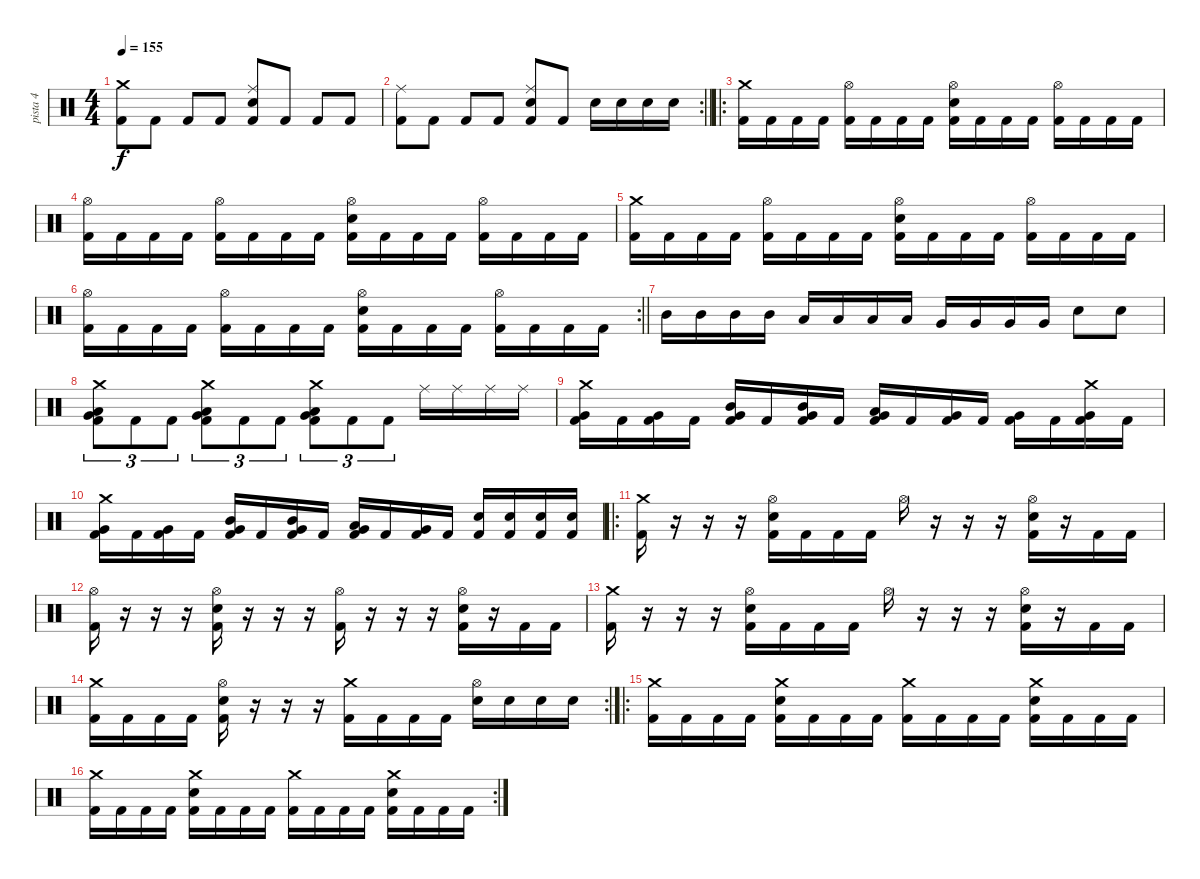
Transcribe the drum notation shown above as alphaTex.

\track ("pista 4" "pista 4") {instrument percussion}
\staff {score}
\articulation defaults
\ts (4 4)
\tempo 155
\clef neutral
\ks c
("Crash medium (hit)" "Kick (hit) 2").8{dy f} "Kick (hit) 2".8 "Kick (hit) 2".8 "Kick (hit) 2".8 ("Ride (middle)" "Snare (hit) 2" "Kick (hit) 2").8 "Kick (hit) 2".8 "Kick (hit) 2".8 "Kick (hit) 2".8 |
\rc 2
\barLineRight lightlight
("Ride (middle)" "Kick (hit) 2").8 "Kick (hit) 2".8 "Kick (hit) 2".8 "Kick (hit) 2".8 ("Ride (middle)" "Snare (hit) 2" "Kick (hit) 2").8 "Kick (hit) 2".8 "Snare (hit) 2".16 "Snare (hit) 2".16 "Snare (hit) 2".16 "Snare (hit) 2".16 |
\ro
("Crash medium (hit)" "Kick (hit) 2").16 "Kick (hit) 2".16 "Kick (hit) 2".16 "Kick (hit) 2".16 ("Hi-Hat (open)" "Kick (hit) 2").16 "Kick (hit) 2".16 "Kick (hit) 2".16 "Kick (hit) 2".16 ("Hi-Hat (open)" "Snare (hit) 2" "Kick (hit) 2").16 "Kick (hit) 2".16 "Kick (hit) 2".16 "Kick (hit) 2".16 ("Hi-Hat (open)" "Kick (hit) 2").16 "Kick (hit) 2".16 "Kick (hit) 2".16 "Kick (hit) 2".16 |
("Hi-Hat (open)" "Kick (hit) 2").16 "Kick (hit) 2".16 "Kick (hit) 2".16 "Kick (hit) 2".16 ("Hi-Hat (open)" "Kick (hit) 2").16 "Kick (hit) 2".16 "Kick (hit) 2".16 "Kick (hit) 2".16 ("Hi-Hat (open)" "Snare (hit) 2" "Kick (hit) 2").16 "Kick (hit) 2".16 "Kick (hit) 2".16 "Kick (hit) 2".16 ("Hi-Hat (open)" "Kick (hit) 2").16 "Kick (hit) 2".16 "Kick (hit) 2".16 "Kick (hit) 2".16 |
("Crash medium (hit)" "Kick (hit) 2").16 "Kick (hit) 2".16 "Kick (hit) 2".16 "Kick (hit) 2".16 ("Hi-Hat (open)" "Kick (hit) 2").16 "Kick (hit) 2".16 "Kick (hit) 2".16 "Kick (hit) 2".16 ("Hi-Hat (open)" "Snare (hit) 2" "Kick (hit) 2").16 "Kick (hit) 2".16 "Kick (hit) 2".16 "Kick (hit) 2".16 ("Hi-Hat (open)" "Kick (hit) 2").16 "Kick (hit) 2".16 "Kick (hit) 2".16 "Kick (hit) 2".16 |
\rc 2
\barLineRight lightlight
("Hi-Hat (open)" "Kick (hit) 2").16 "Kick (hit) 2".16 "Kick (hit) 2".16 "Kick (hit) 2".16 ("Hi-Hat (open)" "Kick (hit) 2").16 "Kick (hit) 2".16 "Kick (hit) 2".16 "Kick (hit) 2".16 ("Hi-Hat (open)" "Snare (hit) 2" "Kick (hit) 2").16 "Kick (hit) 2".16 "Kick (hit) 2".16 "Kick (hit) 2".16 ("Hi-Hat (open)" "Kick (hit) 2").16 "Kick (hit) 2".16 "Kick (hit) 2".16 "Kick (hit) 2".16 |
"Mid Tom (hit)".16 "Mid Tom (hit)".16 "Mid Tom (hit)".16 "Mid Tom (hit)".16 "Low Tom (hit)".16 "Low Tom (hit)".16 "Low Tom (hit)".16 "Low Tom (hit)".16 "Very Low Tom (hit)".16 "Very Low Tom (hit)".16 "Very Low Tom (hit)".16 "Very Low Tom (hit)".16 "Snare (hit) 2".8 "Snare (hit) 2".8 |
("Crash medium (hit)" "Low Tom (hit)" "Very Low Tom (hit)" "Kick (hit) 2").8{tu (3 2)} "Kick (hit) 2".8{tu (3 2)} "Kick (hit) 2".8{tu (3 2)} ("Crash medium (hit)" "Very Low Tom (hit)" "Low Floor Tom (hit)" "Kick (hit) 2").8{tu (3 2)} "Kick (hit) 2".8{tu (3 2)} "Kick (hit) 2".8{tu (3 2)} ("Crash medium (hit)" "Very Low Tom (hit)" "Low Floor Tom (hit)" "Kick (hit) 2").8{tu (3 2)} "Kick (hit) 2".8{tu (3 2)} "Kick (hit) 2".8{tu (3 2)} "Ride (middle)".16 "Ride (middle)".16 "Ride (middle)".16 "Ride (middle)".16 |
("Crash medium (hit)" "Very Low Tom (hit)" "Kick (hit) 2").16 "Kick (hit) 2".16 ("Very Low Tom (hit)" "Kick (hit) 2").16 "Kick (hit) 2".16 ("Mid Tom (hit)" "Very Low Tom (hit)" "Kick (hit) 2").16 "Kick (hit) 2".16 ("Mid Tom (hit)" "Very Low Tom (hit)" "Kick (hit) 2").16 "Kick (hit) 2".16 ("Low Tom (hit)" "Very Low Tom (hit)" "Kick (hit) 2").16 "Kick (hit) 2".16 ("Very Low Tom (hit)" "Kick (hit) 2").16 "Kick (hit) 2".16 ("Very Low Tom (hit)" "Kick (hit) 2").16 "Kick (hit) 2".16 ("Crash medium (hit)" "Very Low Tom (hit)" "Kick (hit) 2").16 "Kick (hit) 2".16 |
("Crash medium (hit)" "Very Low Tom (hit)" "Kick (hit) 2").16 "Kick (hit) 2".16 ("Very Low Tom (hit)" "Kick (hit) 2").16 "Kick (hit) 2".16 ("Mid Tom (hit)" "Very Low Tom (hit)" "Kick (hit) 2").16 "Kick (hit) 2".16 ("Mid Tom (hit)" "Very Low Tom (hit)" "Kick (hit) 2").16 "Kick (hit) 2".16 ("Low Tom (hit)" "Very Low Tom (hit)" "Kick (hit) 2").16 "Kick (hit) 2".16 ("Very Low Tom (hit)" "Kick (hit) 2").16 "Kick (hit) 2".16 ("Snare (hit) 2" "Kick (hit) 2").16 ("Snare (hit) 2" "Kick (hit) 2").16 ("Snare (hit) 2" "Kick (hit) 2").16 ("Snare (hit) 2" "Kick (hit) 2").16 |
\ro
("Crash medium (hit)" "Kick (hit) 2").16 r.16 r.16 r.16 ("Hi-Hat (open)" "Snare (hit) 2" "Kick (hit) 2").16 "Kick (hit) 2".16 "Kick (hit) 2".16 "Kick (hit) 2".16 "Hi-Hat (open)".16 r.16 r.16 r.16 ("Hi-Hat (open)" "Snare (hit) 2" "Kick (hit) 2").16 r.16 "Kick (hit) 2".16 "Kick (hit) 2".16 |
("Hi-Hat (open)" "Kick (hit) 2").16 r.16 r.16 r.16 ("Hi-Hat (open)" "Snare (hit) 2" "Kick (hit) 2").16 r.16 r.16 r.16 ("Hi-Hat (open)" "Kick (hit) 2").16 r.16 r.16 r.16 ("Hi-Hat (open)" "Snare (hit) 2" "Kick (hit) 2").16 r.16 "Kick (hit) 2".16 "Kick (hit) 2".16 |
("Crash medium (hit)" "Kick (hit) 2").16 r.16 r.16 r.16 ("Hi-Hat (open)" "Snare (hit) 2" "Kick (hit) 2").16 "Kick (hit) 2".16 "Kick (hit) 2".16 "Kick (hit) 2".16 "Hi-Hat (open)".16 r.16 r.16 r.16 ("Hi-Hat (open)" "Snare (hit) 2" "Kick (hit) 2").16 r.16 "Kick (hit) 2".16 "Kick (hit) 2".16 |
\rc 2
("Crash medium (hit)" "Kick (hit) 2").16 "Kick (hit) 2".16 "Kick (hit) 2".16 "Kick (hit) 2".16 ("Hi-Hat (open)" "Snare (hit) 2" "Kick (hit) 2").16 r.16 r.16 r.16 ("Crash medium (hit)" "Kick (hit) 2").16 "Kick (hit) 2".16 "Kick (hit) 2".16 "Kick (hit) 2".16 ("Hi-Hat (open)" "Snare (hit) 2").16 "Snare (hit) 2".16 "Snare (hit) 2".16 "Snare (hit) 2".16 |
\ro
("Crash medium (hit)" "Kick (hit) 2").16 "Kick (hit) 2".16 "Kick (hit) 2".16 "Kick (hit) 2".16 ("Crash medium (hit)" "Snare (hit) 2" "Kick (hit) 2").16 "Kick (hit) 2".16 "Kick (hit) 2".16 "Kick (hit) 2".16 ("Crash medium (hit)" "Kick (hit) 2").16 "Kick (hit) 2".16 "Kick (hit) 2".16 "Kick (hit) 2".16 ("Crash medium (hit)" "Snare (hit) 2" "Kick (hit) 2").16 "Kick (hit) 2".16 "Kick (hit) 2".16 "Kick (hit) 2".16 |
\rc 2
("Crash medium (hit)" "Kick (hit) 2").16 "Kick (hit) 2".16 "Kick (hit) 2".16 "Kick (hit) 2".16 ("Crash medium (hit)" "Snare (hit) 2" "Kick (hit) 2").16 "Kick (hit) 2".16 "Kick (hit) 2".16 "Kick (hit) 2".16 ("Crash medium (hit)" "Kick (hit) 2").16 "Kick (hit) 2".16 "Kick (hit) 2".16 "Kick (hit) 2".16 ("Crash medium (hit)" "Snare (hit) 2" "Kick (hit) 2").16 "Kick (hit) 2".16 "Kick (hit) 2".16 "Kick (hit) 2".16
